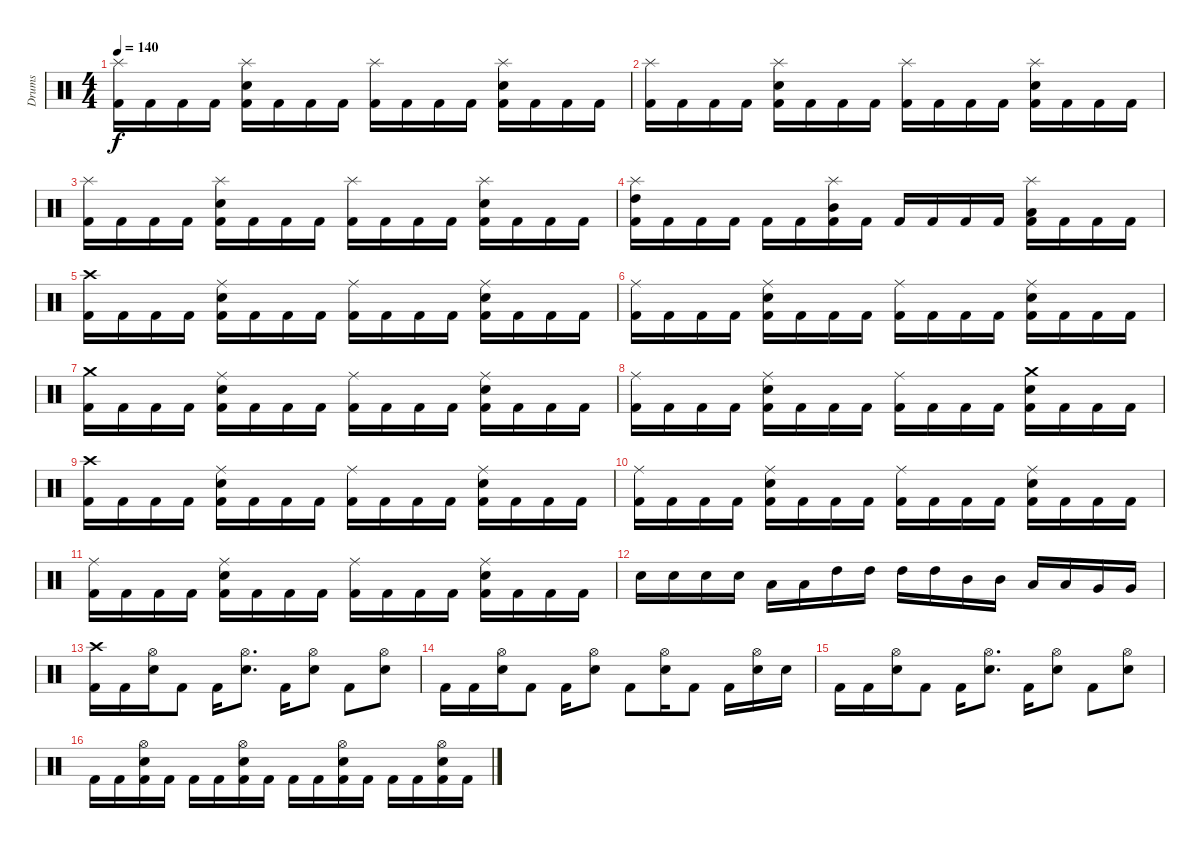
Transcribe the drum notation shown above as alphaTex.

\track ("Drums" "Drums") {instrument percussion}
\staff {score}
\articulation defaults
\ts (4 4)
\tempo 140
\clef neutral
\ks c
("Splash (hit)" "Kick (hit) 2").16{dy f} "Kick (hit) 2".16 "Kick (hit) 2".16 "Kick (hit) 2".16 ("Splash (hit)" "Snare (hit) 2" "Kick (hit) 2").16 "Kick (hit) 2".16 "Kick (hit) 2".16 "Kick (hit) 2".16 ("Splash (hit)" "Kick (hit) 2").16 "Kick (hit) 2".16 "Kick (hit) 2".16 "Kick (hit) 2".16 ("Splash (hit)" "Snare (hit) 2" "Kick (hit) 2").16 "Kick (hit) 2".16 "Kick (hit) 2".16 "Kick (hit) 2".16 |
("Splash (hit)" "Kick (hit) 2").16 "Kick (hit) 2".16 "Kick (hit) 2".16 "Kick (hit) 2".16 ("Splash (hit)" "Snare (hit) 2" "Kick (hit) 2").16 "Kick (hit) 2".16 "Kick (hit) 2".16 "Kick (hit) 2".16 ("Splash (hit)" "Kick (hit) 2").16 "Kick (hit) 2".16 "Kick (hit) 2".16 "Kick (hit) 2".16 ("Splash (hit)" "Snare (hit) 2" "Kick (hit) 2").16 "Kick (hit) 2".16 "Kick (hit) 2".16 "Kick (hit) 2".16 |
("Splash (hit)" "Kick (hit) 2").16 "Kick (hit) 2".16 "Kick (hit) 2".16 "Kick (hit) 2".16 ("Splash (hit)" "Snare (hit) 2" "Kick (hit) 2").16 "Kick (hit) 2".16 "Kick (hit) 2".16 "Kick (hit) 2".16 ("Splash (hit)" "Kick (hit) 2").16 "Kick (hit) 2".16 "Kick (hit) 2".16 "Kick (hit) 2".16 ("Splash (hit)" "Snare (hit) 2" "Kick (hit) 2").16 "Kick (hit) 2".16 "Kick (hit) 2".16 "Kick (hit) 2".16 |
("Splash (hit)" "High Tom (hit)" "Kick (hit) 2").16 "Kick (hit) 2".16 "Kick (hit) 2".16 "Kick (hit) 2".16 "Kick (hit) 2".16 "Kick (hit) 2".16 ("Splash (hit)" "Mid Tom (hit)" "Kick (hit) 2").16 "Kick (hit) 2".16 "Kick (hit) 2".16 "Kick (hit) 2".16 "Kick (hit) 2".16 "Kick (hit) 2".16 ("Splash (hit)" "Low Tom (hit)" "Kick (hit) 2").16 "Kick (hit) 2".16 "Kick (hit) 2".16 "Kick (hit) 2".16 |
("Crash high (hit)" "Kick (hit) 2").16 "Kick (hit) 2".16 "Kick (hit) 2".16 "Kick (hit) 2".16 ("Ride (middle)" "Snare (hit) 2" "Kick (hit) 2").16 "Kick (hit) 2".16 "Kick (hit) 2".16 "Kick (hit) 2".16 ("Ride (middle)" "Kick (hit) 2").16 "Kick (hit) 2".16 "Kick (hit) 2".16 "Kick (hit) 2".16 ("Ride (middle)" "Snare (hit) 2" "Kick (hit) 2").16 "Kick (hit) 2".16 "Kick (hit) 2".16 "Kick (hit) 2".16 |
("Ride (middle)" "Kick (hit) 2").16 "Kick (hit) 2".16 "Kick (hit) 2".16 "Kick (hit) 2".16 ("Ride (middle)" "Snare (hit) 2" "Kick (hit) 2").16 "Kick (hit) 2".16 "Kick (hit) 2".16 "Kick (hit) 2".16 ("Ride (middle)" "Kick (hit) 2").16 "Kick (hit) 2".16 "Kick (hit) 2".16 "Kick (hit) 2".16 ("Ride (middle)" "Snare (hit) 2" "Kick (hit) 2").16 "Kick (hit) 2".16 "Kick (hit) 2".16 "Kick (hit) 2".16 |
("Crash medium (hit)" "Kick (hit) 2").16 "Kick (hit) 2".16 "Kick (hit) 2".16 "Kick (hit) 2".16 ("Ride (middle)" "Snare (hit) 2" "Kick (hit) 2").16 "Kick (hit) 2".16 "Kick (hit) 2".16 "Kick (hit) 2".16 ("Ride (middle)" "Kick (hit) 2").16 "Kick (hit) 2".16 "Kick (hit) 2".16 "Kick (hit) 2".16 ("Ride (middle)" "Snare (hit) 2" "Kick (hit) 2").16 "Kick (hit) 2".16 "Kick (hit) 2".16 "Kick (hit) 2".16 |
("Ride (middle)" "Kick (hit) 2").16 "Kick (hit) 2".16 "Kick (hit) 2".16 "Kick (hit) 2".16 ("Ride (middle)" "Snare (hit) 2" "Kick (hit) 2").16 "Kick (hit) 2".16 "Kick (hit) 2".16 "Kick (hit) 2".16 ("Ride (middle)" "Kick (hit) 2").16 "Kick (hit) 2".16 "Kick (hit) 2".16 "Kick (hit) 2".16 ("Crash medium (hit)" "Snare (hit) 2" "Kick (hit) 2").16 "Kick (hit) 2".16 "Kick (hit) 2".16 "Kick (hit) 2".16 |
("Crash high (hit)" "Kick (hit) 2").16 "Kick (hit) 2".16 "Kick (hit) 2".16 "Kick (hit) 2".16 ("Ride (middle)" "Snare (hit) 2" "Kick (hit) 2").16 "Kick (hit) 2".16 "Kick (hit) 2".16 "Kick (hit) 2".16 ("Ride (middle)" "Kick (hit) 2").16 "Kick (hit) 2".16 "Kick (hit) 2".16 "Kick (hit) 2".16 ("Ride (middle)" "Snare (hit) 2" "Kick (hit) 2").16 "Kick (hit) 2".16 "Kick (hit) 2".16 "Kick (hit) 2".16 |
("Ride (middle)" "Kick (hit) 2").16 "Kick (hit) 2".16 "Kick (hit) 2".16 "Kick (hit) 2".16 ("Ride (middle)" "Snare (hit) 2" "Kick (hit) 2").16 "Kick (hit) 2".16 "Kick (hit) 2".16 "Kick (hit) 2".16 ("Ride (middle)" "Kick (hit) 2").16 "Kick (hit) 2".16 "Kick (hit) 2".16 "Kick (hit) 2".16 ("Ride (middle)" "Snare (hit) 2" "Kick (hit) 2").16 "Kick (hit) 2".16 "Kick (hit) 2".16 "Kick (hit) 2".16 |
("Ride (middle)" "Kick (hit) 2").16 "Kick (hit) 2".16 "Kick (hit) 2".16 "Kick (hit) 2".16 ("Ride (middle)" "Snare (hit) 2" "Kick (hit) 2").16 "Kick (hit) 2".16 "Kick (hit) 2".16 "Kick (hit) 2".16 ("Ride (middle)" "Kick (hit) 2").16 "Kick (hit) 2".16 "Kick (hit) 2".16 "Kick (hit) 2".16 ("Ride (middle)" "Snare (hit) 2" "Kick (hit) 2").16 "Kick (hit) 2".16 "Kick (hit) 2".16 "Kick (hit) 2".16 |
"Snare (hit) 2".16 "Snare (hit) 2".16 "Snare (hit) 2".16 "Snare (hit) 2".16 "Low Tom (hit)".16 "Low Tom (hit)".16 "High Tom (hit)".16 "High Tom (hit)".16 "High Tom (hit)".16 "High Tom (hit)".16 "Mid Tom (hit)".16 "Mid Tom (hit)".16 "Low Tom (hit)".16 "Low Tom (hit)".16 "Very Low Tom (hit)".16 "Very Low Tom (hit)".16 |
("Crash high (hit)" "Kick (hit) 2").16 "Kick (hit) 2".16 ("Hi-Hat (open)" "Snare (hit) 2").16 "Kick (hit) 2".8 "Kick (hit) 2".16 ("Hi-Hat (open)" "Snare (hit) 2").8{d} "Kick (hit) 2".16 ("Hi-Hat (open)" "Snare (hit) 2").8 "Kick (hit) 2".8 ("Hi-Hat (open)" "Snare (hit) 2").8 |
"Kick (hit) 2".16 "Kick (hit) 2".16 ("Hi-Hat (open)" "Snare (hit) 2").16 "Kick (hit) 2".8 "Kick (hit) 2".16 ("Hi-Hat (open)" "Snare (hit) 2").8 "Kick (hit) 2".8 ("Hi-Hat (open)" "Snare (hit) 2").16 "Kick (hit) 2".8 "Kick (hit) 2".16 ("Hi-Hat (open)" "Snare (hit) 2").16 "Snare (hit) 2".16 |
"Kick (hit) 2".16 "Kick (hit) 2".16 ("Hi-Hat (open)" "Snare (hit) 2").16 "Kick (hit) 2".8 "Kick (hit) 2".16 ("Hi-Hat (open)" "Snare (hit) 2").8{d} "Kick (hit) 2".16 ("Hi-Hat (open)" "Snare (hit) 2").8 "Kick (hit) 2".8 ("Hi-Hat (open)" "Snare (hit) 2").8 |
"Kick (hit) 2".16 "Kick (hit) 2".16 ("Hi-Hat (open)" "Snare (hit) 2" "Kick (hit) 2").16 "Kick (hit) 2".16 "Kick (hit) 2".16 "Kick (hit) 2".16 ("Hi-Hat (open)" "Snare (hit) 2" "Kick (hit) 2").16 "Kick (hit) 2".16 "Kick (hit) 2".16 "Kick (hit) 2".16 ("Hi-Hat (open)" "Snare (hit) 2" "Kick (hit) 2").16 "Kick (hit) 2".16 "Kick (hit) 2".16 "Kick (hit) 2".16 ("Hi-Hat (open)" "Snare (hit) 2" "Kick (hit) 2").16 "Kick (hit) 2".16
